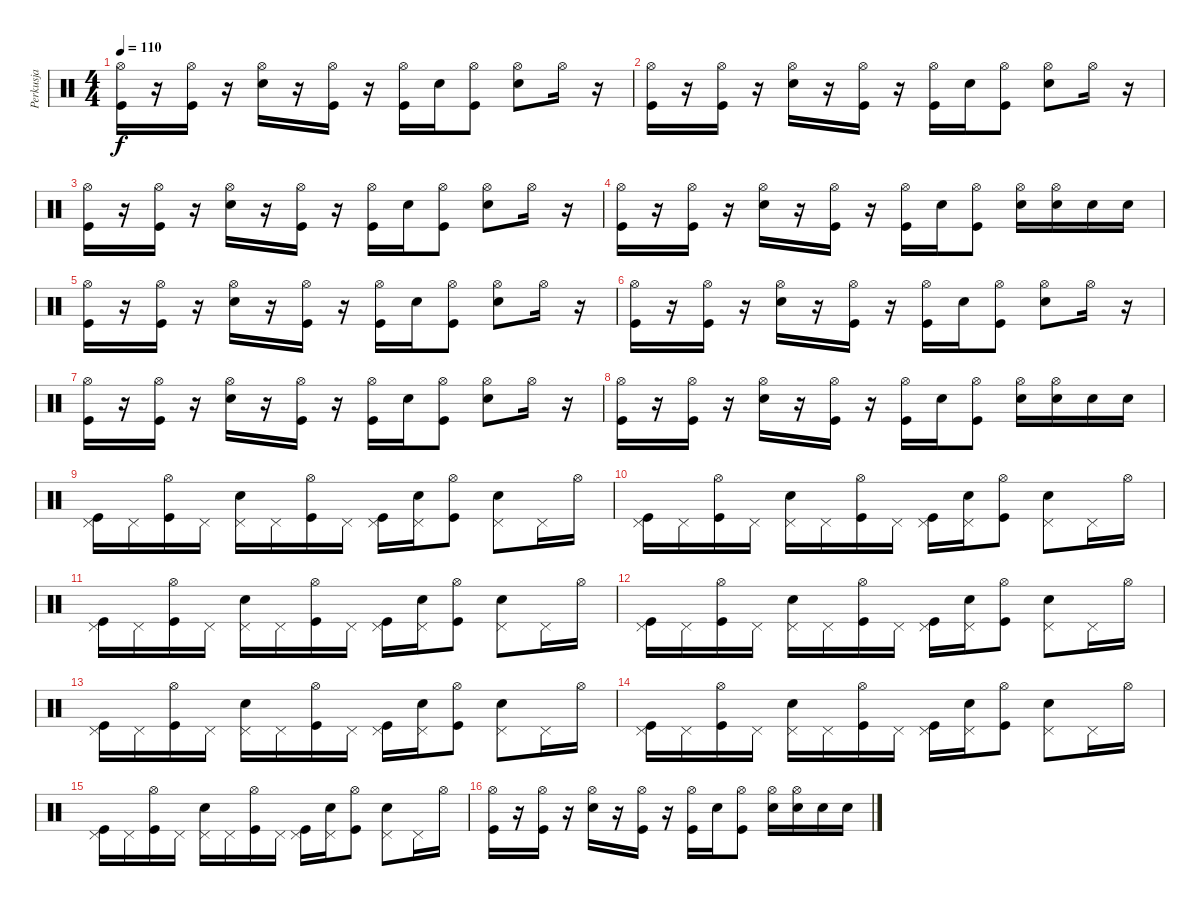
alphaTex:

\track ("Perkusja" "Perkusja") {instrument percussion}
\staff {score}
\articulation defaults
\ts (4 4)
\tempo 110
\clef neutral
\ks c
("Kick (hit)" "Hi-Hat (open)").16{dy f} r.16 ("Kick (hit)" "Hi-Hat (open)").16 r.16 ("Snare (hit) 2" "Hi-Hat (open)").16 r.16 ("Kick (hit)" "Hi-Hat (open)").16 r.16 ("Kick (hit)" "Hi-Hat (open)").16 "Snare (hit) 2".16 ("Kick (hit)" "Hi-Hat (open)").8 ("Snare (hit) 2" "Hi-Hat (open)").8 "Hi-Hat (open)".16 r.16 |
("Kick (hit)" "Hi-Hat (open)").16 r.16 ("Kick (hit)" "Hi-Hat (open)").16 r.16 ("Snare (hit) 2" "Hi-Hat (open)").16 r.16 ("Kick (hit)" "Hi-Hat (open)").16 r.16 ("Kick (hit)" "Hi-Hat (open)").16 "Snare (hit) 2".16 ("Kick (hit)" "Hi-Hat (open)").8 ("Snare (hit) 2" "Hi-Hat (open)").8 "Hi-Hat (open)".16 r.16 |
("Kick (hit)" "Hi-Hat (open)").16 r.16 ("Kick (hit)" "Hi-Hat (open)").16 r.16 ("Snare (hit) 2" "Hi-Hat (open)").16 r.16 ("Kick (hit)" "Hi-Hat (open)").16 r.16 ("Kick (hit)" "Hi-Hat (open)").16 "Snare (hit) 2".16 ("Kick (hit)" "Hi-Hat (open)").8 ("Snare (hit) 2" "Hi-Hat (open)").8 "Hi-Hat (open)".16 r.16 |
("Kick (hit)" "Hi-Hat (open)").16 r.16 ("Kick (hit)" "Hi-Hat (open)").16 r.16 ("Snare (hit) 2" "Hi-Hat (open)").16 r.16 ("Kick (hit)" "Hi-Hat (open)").16 r.16 ("Kick (hit)" "Hi-Hat (open)").16 "Snare (hit) 2".16 ("Kick (hit)" "Hi-Hat (open)").8 ("Snare (hit) 2" "Hi-Hat (open)").16 ("Snare (hit) 2" "Hi-Hat (open)").16 "Snare (hit) 2".16 "Snare (hit) 2".16 |
("Kick (hit)" "Hi-Hat (open)").16 r.16 ("Kick (hit)" "Hi-Hat (open)").16 r.16 ("Snare (hit) 2" "Hi-Hat (open)").16 r.16 ("Kick (hit)" "Hi-Hat (open)").16 r.16 ("Kick (hit)" "Hi-Hat (open)").16 "Snare (hit) 2".16 ("Kick (hit)" "Hi-Hat (open)").8 ("Snare (hit) 2" "Hi-Hat (open)").8 "Hi-Hat (open)".16 r.16 |
("Kick (hit)" "Hi-Hat (open)").16 r.16 ("Kick (hit)" "Hi-Hat (open)").16 r.16 ("Snare (hit) 2" "Hi-Hat (open)").16 r.16 ("Kick (hit)" "Hi-Hat (open)").16 r.16 ("Kick (hit)" "Hi-Hat (open)").16 "Snare (hit) 2".16 ("Kick (hit)" "Hi-Hat (open)").8 ("Snare (hit) 2" "Hi-Hat (open)").8 "Hi-Hat (open)".16 r.16 |
("Kick (hit)" "Hi-Hat (open)").16 r.16 ("Kick (hit)" "Hi-Hat (open)").16 r.16 ("Snare (hit) 2" "Hi-Hat (open)").16 r.16 ("Kick (hit)" "Hi-Hat (open)").16 r.16 ("Kick (hit)" "Hi-Hat (open)").16 "Snare (hit) 2".16 ("Kick (hit)" "Hi-Hat (open)").8 ("Snare (hit) 2" "Hi-Hat (open)").8 "Hi-Hat (open)".16 r.16 |
("Kick (hit)" "Hi-Hat (open)").16 r.16 ("Kick (hit)" "Hi-Hat (open)").16 r.16 ("Snare (hit) 2" "Hi-Hat (open)").16 r.16 ("Kick (hit)" "Hi-Hat (open)").16 r.16 ("Kick (hit)" "Hi-Hat (open)").16 "Snare (hit) 2".16 ("Kick (hit)" "Hi-Hat (open)").8 ("Snare (hit) 2" "Hi-Hat (open)").16 ("Snare (hit) 2" "Hi-Hat (open)").16 "Snare (hit) 2".16 "Snare (hit) 2".16 |
("Kick (hit)" "Pedal Hi-Hat (hit)").16 "Pedal Hi-Hat (hit)".16 ("Kick (hit)" "Hi-Hat (open)").16 "Pedal Hi-Hat (hit)".16 ("Snare (hit) 2" "Pedal Hi-Hat (hit)").16 "Pedal Hi-Hat (hit)".16 ("Kick (hit)" "Hi-Hat (open)").16 "Pedal Hi-Hat (hit)".16 ("Kick (hit)" "Pedal Hi-Hat (hit)").16 ("Snare (hit) 2" "Pedal Hi-Hat (hit)").16 ("Kick (hit)" "Hi-Hat (open)").8 ("Snare (hit) 2" "Pedal Hi-Hat (hit)").8 "Pedal Hi-Hat (hit)".16 "Hi-Hat (open)".16 |
("Kick (hit)" "Pedal Hi-Hat (hit)").16 "Pedal Hi-Hat (hit)".16 ("Kick (hit)" "Hi-Hat (open)").16 "Pedal Hi-Hat (hit)".16 ("Snare (hit) 2" "Pedal Hi-Hat (hit)").16 "Pedal Hi-Hat (hit)".16 ("Kick (hit)" "Hi-Hat (open)").16 "Pedal Hi-Hat (hit)".16 ("Kick (hit)" "Pedal Hi-Hat (hit)").16 ("Snare (hit) 2" "Pedal Hi-Hat (hit)").16 ("Kick (hit)" "Hi-Hat (open)").8 ("Snare (hit) 2" "Pedal Hi-Hat (hit)").8 "Pedal Hi-Hat (hit)".16 "Hi-Hat (open)".16 |
("Kick (hit)" "Pedal Hi-Hat (hit)").16 "Pedal Hi-Hat (hit)".16 ("Kick (hit)" "Hi-Hat (open)").16 "Pedal Hi-Hat (hit)".16 ("Snare (hit) 2" "Pedal Hi-Hat (hit)").16 "Pedal Hi-Hat (hit)".16 ("Kick (hit)" "Hi-Hat (open)").16 "Pedal Hi-Hat (hit)".16 ("Kick (hit)" "Pedal Hi-Hat (hit)").16 ("Snare (hit) 2" "Pedal Hi-Hat (hit)").16 ("Kick (hit)" "Hi-Hat (open)").8 ("Snare (hit) 2" "Pedal Hi-Hat (hit)").8 "Pedal Hi-Hat (hit)".16 "Hi-Hat (open)".16 |
("Kick (hit)" "Pedal Hi-Hat (hit)").16 "Pedal Hi-Hat (hit)".16 ("Kick (hit)" "Hi-Hat (open)").16 "Pedal Hi-Hat (hit)".16 ("Snare (hit) 2" "Pedal Hi-Hat (hit)").16 "Pedal Hi-Hat (hit)".16 ("Kick (hit)" "Hi-Hat (open)").16 "Pedal Hi-Hat (hit)".16 ("Kick (hit)" "Pedal Hi-Hat (hit)").16 ("Snare (hit) 2" "Pedal Hi-Hat (hit)").16 ("Kick (hit)" "Hi-Hat (open)").8 ("Snare (hit) 2" "Pedal Hi-Hat (hit)").8 "Pedal Hi-Hat (hit)".16 "Hi-Hat (open)".16 |
("Kick (hit)" "Pedal Hi-Hat (hit)").16 "Pedal Hi-Hat (hit)".16 ("Kick (hit)" "Hi-Hat (open)").16 "Pedal Hi-Hat (hit)".16 ("Snare (hit) 2" "Pedal Hi-Hat (hit)").16 "Pedal Hi-Hat (hit)".16 ("Kick (hit)" "Hi-Hat (open)").16 "Pedal Hi-Hat (hit)".16 ("Kick (hit)" "Pedal Hi-Hat (hit)").16 ("Snare (hit) 2" "Pedal Hi-Hat (hit)").16 ("Kick (hit)" "Hi-Hat (open)").8 ("Snare (hit) 2" "Pedal Hi-Hat (hit)").8 "Pedal Hi-Hat (hit)".16 "Hi-Hat (open)".16 |
("Kick (hit)" "Pedal Hi-Hat (hit)").16 "Pedal Hi-Hat (hit)".16 ("Kick (hit)" "Hi-Hat (open)").16 "Pedal Hi-Hat (hit)".16 ("Snare (hit) 2" "Pedal Hi-Hat (hit)").16 "Pedal Hi-Hat (hit)".16 ("Kick (hit)" "Hi-Hat (open)").16 "Pedal Hi-Hat (hit)".16 ("Kick (hit)" "Pedal Hi-Hat (hit)").16 ("Snare (hit) 2" "Pedal Hi-Hat (hit)").16 ("Kick (hit)" "Hi-Hat (open)").8 ("Snare (hit) 2" "Pedal Hi-Hat (hit)").8 "Pedal Hi-Hat (hit)".16 "Hi-Hat (open)".16 |
("Kick (hit)" "Pedal Hi-Hat (hit)").16 "Pedal Hi-Hat (hit)".16 ("Kick (hit)" "Hi-Hat (open)").16 "Pedal Hi-Hat (hit)".16 ("Snare (hit) 2" "Pedal Hi-Hat (hit)").16 "Pedal Hi-Hat (hit)".16 ("Kick (hit)" "Hi-Hat (open)").16 "Pedal Hi-Hat (hit)".16 ("Kick (hit)" "Pedal Hi-Hat (hit)").16 ("Snare (hit) 2" "Pedal Hi-Hat (hit)").16 ("Kick (hit)" "Hi-Hat (open)").8 ("Snare (hit) 2" "Pedal Hi-Hat (hit)").8 "Pedal Hi-Hat (hit)".16 "Hi-Hat (open)".16 |
("Kick (hit)" "Hi-Hat (open)").16 r.16 ("Kick (hit)" "Hi-Hat (open)").16 r.16 ("Snare (hit) 2" "Hi-Hat (open)").16 r.16 ("Kick (hit)" "Hi-Hat (open)").16 r.16 ("Kick (hit)" "Hi-Hat (open)").16 "Snare (hit) 2".16 ("Kick (hit)" "Hi-Hat (open)").8 ("Snare (hit) 2" "Hi-Hat (open)").16 ("Snare (hit) 2" "Hi-Hat (open)").16 "Snare (hit) 2".16 "Snare (hit) 2".16
